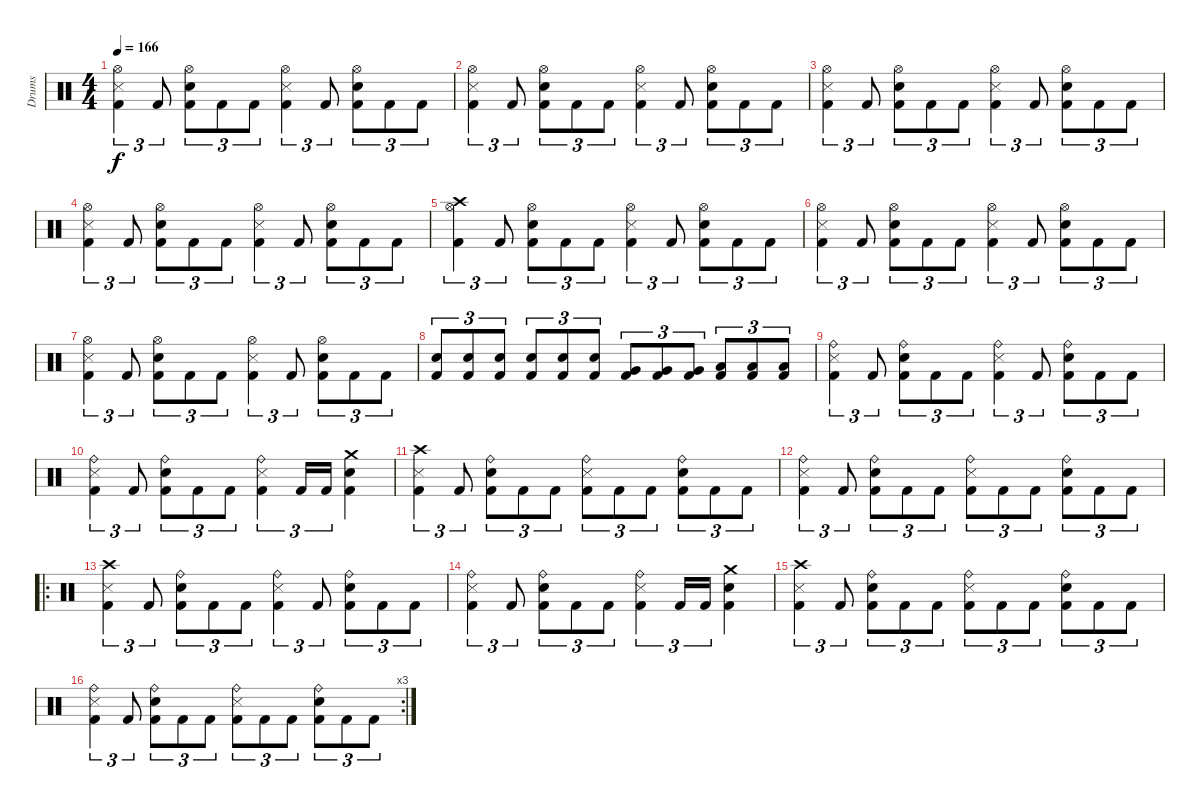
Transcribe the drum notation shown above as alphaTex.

\track ("Drums" "Drums") {instrument percussion}
\staff {score}
\articulation defaults
\ts (4 4)
\tempo 166
\clef neutral
\ks c
("Hi-Hat (open)" "Snare (side stick) 3" "Kick (hit) 2").4{tu (3 2) dy f} "Kick (hit) 2".8{tu (3 2)} ("Hi-Hat (open)" "Electric Snare (hit)" "Kick (hit) 2").8{tu (3 2)} "Kick (hit) 2".8{tu (3 2)} "Kick (hit) 2".8{tu (3 2)} ("Hi-Hat (open)" "Snare (side stick) 3" "Kick (hit) 2").4{tu (3 2)} "Kick (hit) 2".8{tu (3 2)} ("Hi-Hat (open)" "Electric Snare (hit)" "Kick (hit) 2").8{tu (3 2)} "Kick (hit) 2".8{tu (3 2)} "Kick (hit) 2".8{tu (3 2)} |
("Hi-Hat (open)" "Snare (side stick) 3" "Kick (hit) 2").4{tu (3 2)} "Kick (hit) 2".8{tu (3 2)} ("Hi-Hat (open)" "Electric Snare (hit)" "Kick (hit) 2").8{tu (3 2)} "Kick (hit) 2".8{tu (3 2)} "Kick (hit) 2".8{tu (3 2)} ("Hi-Hat (open)" "Snare (side stick) 3" "Kick (hit) 2").4{tu (3 2)} "Kick (hit) 2".8{tu (3 2)} ("Hi-Hat (open)" "Electric Snare (hit)" "Kick (hit) 2").8{tu (3 2)} "Kick (hit) 2".8{tu (3 2)} "Kick (hit) 2".8{tu (3 2)} |
("Hi-Hat (open)" "Snare (side stick) 3" "Kick (hit) 2").4{tu (3 2)} "Kick (hit) 2".8{tu (3 2)} ("Hi-Hat (open)" "Electric Snare (hit)" "Kick (hit) 2").8{tu (3 2)} "Kick (hit) 2".8{tu (3 2)} "Kick (hit) 2".8{tu (3 2)} ("Hi-Hat (open)" "Snare (side stick) 3" "Kick (hit) 2").4{tu (3 2)} "Kick (hit) 2".8{tu (3 2)} ("Hi-Hat (open)" "Electric Snare (hit)" "Kick (hit) 2").8{tu (3 2)} "Kick (hit) 2".8{tu (3 2)} "Kick (hit) 2".8{tu (3 2)} |
("Hi-Hat (open)" "Snare (side stick) 3" "Kick (hit) 2").4{tu (3 2)} "Kick (hit) 2".8{tu (3 2)} ("Hi-Hat (open)" "Electric Snare (hit)" "Kick (hit) 2").8{tu (3 2)} "Kick (hit) 2".8{tu (3 2)} "Kick (hit) 2".8{tu (3 2)} ("Hi-Hat (open)" "Snare (side stick) 3" "Kick (hit) 2").4{tu (3 2)} "Kick (hit) 2".8{tu (3 2)} ("Hi-Hat (open)" "Electric Snare (hit)" "Kick (hit) 2").8{tu (3 2)} "Kick (hit) 2".8{tu (3 2)} "Kick (hit) 2".8{tu (3 2)} |
("Crash high (hit)" "Hi-Hat (open)" "Kick (hit) 2").4{tu (3 2)} "Kick (hit) 2".8{tu (3 2)} ("Hi-Hat (open)" "Electric Snare (hit)" "Kick (hit) 2").8{tu (3 2)} "Kick (hit) 2".8{tu (3 2)} "Kick (hit) 2".8{tu (3 2)} ("Hi-Hat (open)" "Snare (side stick) 3" "Kick (hit) 2").4{tu (3 2)} "Kick (hit) 2".8{tu (3 2)} ("Hi-Hat (open)" "Electric Snare (hit)" "Kick (hit) 2").8{tu (3 2)} "Kick (hit) 2".8{tu (3 2)} "Kick (hit) 2".8{tu (3 2)} |
("Hi-Hat (open)" "Snare (side stick) 3" "Kick (hit) 2").4{tu (3 2)} "Kick (hit) 2".8{tu (3 2)} ("Hi-Hat (open)" "Electric Snare (hit)" "Kick (hit) 2").8{tu (3 2)} "Kick (hit) 2".8{tu (3 2)} "Kick (hit) 2".8{tu (3 2)} ("Hi-Hat (open)" "Snare (side stick) 3" "Kick (hit) 2").4{tu (3 2)} "Kick (hit) 2".8{tu (3 2)} ("Hi-Hat (open)" "Electric Snare (hit)" "Kick (hit) 2").8{tu (3 2)} "Kick (hit) 2".8{tu (3 2)} "Kick (hit) 2".8{tu (3 2)} |
("Hi-Hat (open)" "Snare (side stick) 3" "Kick (hit) 2").4{tu (3 2)} "Kick (hit) 2".8{tu (3 2)} ("Hi-Hat (open)" "Electric Snare (hit)" "Kick (hit) 2").8{tu (3 2)} "Kick (hit) 2".8{tu (3 2)} "Kick (hit) 2".8{tu (3 2)} ("Hi-Hat (open)" "Snare (side stick) 3" "Kick (hit) 2").4{tu (3 2)} "Kick (hit) 2".8{tu (3 2)} ("Hi-Hat (open)" "Electric Snare (hit)" "Kick (hit) 2").8{tu (3 2)} "Kick (hit) 2".8{tu (3 2)} "Kick (hit) 2".8{tu (3 2)} |
("Electric Snare (hit)" "Kick (hit) 2").8{tu (3 2)} ("Electric Snare (hit)" "Kick (hit) 2").8{tu (3 2)} ("Electric Snare (hit)" "Kick (hit) 2").8{tu (3 2)} ("Electric Snare (hit)" "Kick (hit) 2").8{tu (3 2)} ("Electric Snare (hit)" "Kick (hit) 2").8{tu (3 2)} ("Electric Snare (hit)" "Kick (hit) 2").8{tu (3 2)} ("Very Low Tom (hit)" "Kick (hit) 2").8{tu (3 2)} ("Very Low Tom (hit)" "Kick (hit) 2").8{tu (3 2)} ("Very Low Tom (hit)" "Kick (hit) 2").8{tu (3 2)} ("Low Tom (hit)" "Kick (hit) 2").8{tu (3 2)} ("Low Tom (hit)" "Kick (hit) 2").8{tu (3 2)} ("Low Tom (hit)" "Kick (hit) 2").8{tu (3 2)} |
("Ride (bell)" "Snare (side stick) 3" "Kick (hit) 2").4{tu (3 2)} "Kick (hit) 2".8{tu (3 2)} ("Ride (bell)" "Electric Snare (hit)" "Kick (hit) 2").8{tu (3 2)} "Kick (hit) 2".8{tu (3 2)} "Kick (hit) 2".8{tu (3 2)} ("Ride (bell)" "Snare (side stick) 3" "Kick (hit) 2").4{tu (3 2)} "Kick (hit) 2".8{tu (3 2)} ("Ride (bell)" "Electric Snare (hit)" "Kick (hit) 2").8{tu (3 2)} "Kick (hit) 2".8{tu (3 2)} "Kick (hit) 2".8{tu (3 2)} |
("Ride (bell)" "Snare (side stick) 3" "Kick (hit) 2").4{tu (3 2)} "Kick (hit) 2".8{tu (3 2)} ("Ride (bell)" "Electric Snare (hit)" "Kick (hit) 2").8{tu (3 2)} "Kick (hit) 2".8{tu (3 2)} "Kick (hit) 2".8{tu (3 2)} ("Ride (bell)" "Snare (side stick) 3" "Kick (hit) 2").4{tu (3 2)} "Kick (hit) 2".16{tu (3 2)} "Kick (hit) 2".16{tu (3 2)} ("Crash medium (hit)" "Electric Snare (hit)" "Kick (hit) 2").4 |
("Crash high (hit)" "Snare (side stick) 3" "Kick (hit) 2").4{tu (3 2)} "Kick (hit) 2".8{tu (3 2)} ("Ride (bell)" "Electric Snare (hit)" "Kick (hit) 2").8{tu (3 2)} "Kick (hit) 2".8{tu (3 2)} "Kick (hit) 2".8{tu (3 2)} ("Ride (bell)" "Snare (side stick) 3" "Kick (hit) 2").8{tu (3 2)} "Kick (hit) 2".8{tu (3 2)} "Kick (hit) 2".8{tu (3 2)} ("Ride (bell)" "Electric Snare (hit)" "Kick (hit) 2").8{tu (3 2)} "Kick (hit) 2".8{tu (3 2)} "Kick (hit) 2".8{tu (3 2)} |
("Ride (bell)" "Snare (side stick) 3" "Kick (hit) 2").4{tu (3 2)} "Kick (hit) 2".8{tu (3 2)} ("Ride (bell)" "Electric Snare (hit)" "Kick (hit) 2").8{tu (3 2)} "Kick (hit) 2".8{tu (3 2)} "Kick (hit) 2".8{tu (3 2)} ("Ride (bell)" "Snare (side stick) 3" "Kick (hit) 2").8{tu (3 2)} "Kick (hit) 2".8{tu (3 2)} "Kick (hit) 2".8{tu (3 2)} ("Ride (bell)" "Electric Snare (hit)" "Kick (hit) 2").8{tu (3 2)} "Kick (hit) 2".8{tu (3 2)} "Kick (hit) 2".8{tu (3 2)} |
\ro
("Crash high (hit)" "Snare (side stick) 3" "Kick (hit) 2").4{tu (3 2)} "Kick (hit) 2".8{tu (3 2)} ("Ride (bell)" "Electric Snare (hit)" "Kick (hit) 2").8{tu (3 2)} "Kick (hit) 2".8{tu (3 2)} "Kick (hit) 2".8{tu (3 2)} ("Ride (bell)" "Snare (side stick) 3" "Kick (hit) 2").4{tu (3 2)} "Kick (hit) 2".8{tu (3 2)} ("Ride (bell)" "Electric Snare (hit)" "Kick (hit) 2").8{tu (3 2)} "Kick (hit) 2".8{tu (3 2)} "Kick (hit) 2".8{tu (3 2)} |
("Ride (bell)" "Snare (side stick) 3" "Kick (hit) 2").4{tu (3 2)} "Kick (hit) 2".8{tu (3 2)} ("Ride (bell)" "Electric Snare (hit)" "Kick (hit) 2").8{tu (3 2)} "Kick (hit) 2".8{tu (3 2)} "Kick (hit) 2".8{tu (3 2)} ("Ride (bell)" "Snare (side stick) 3" "Kick (hit) 2").4{tu (3 2)} "Kick (hit) 2".16{tu (3 2)} "Kick (hit) 2".16{tu (3 2)} ("Crash medium (hit)" "Electric Snare (hit)" "Kick (hit) 2").4 |
("Crash high (hit)" "Snare (side stick) 3" "Kick (hit) 2").4{tu (3 2)} "Kick (hit) 2".8{tu (3 2)} ("Ride (bell)" "Electric Snare (hit)" "Kick (hit) 2").8{tu (3 2)} "Kick (hit) 2".8{tu (3 2)} "Kick (hit) 2".8{tu (3 2)} ("Ride (bell)" "Snare (side stick) 3" "Kick (hit) 2").8{tu (3 2)} "Kick (hit) 2".8{tu (3 2)} "Kick (hit) 2".8{tu (3 2)} ("Ride (bell)" "Electric Snare (hit)" "Kick (hit) 2").8{tu (3 2)} "Kick (hit) 2".8{tu (3 2)} "Kick (hit) 2".8{tu (3 2)} |
\rc 3
("Ride (bell)" "Snare (side stick) 3" "Kick (hit) 2").4{tu (3 2)} "Kick (hit) 2".8{tu (3 2)} ("Ride (bell)" "Electric Snare (hit)" "Kick (hit) 2").8{tu (3 2)} "Kick (hit) 2".8{tu (3 2)} "Kick (hit) 2".8{tu (3 2)} ("Ride (bell)" "Snare (side stick) 3" "Kick (hit) 2").8{tu (3 2)} "Kick (hit) 2".8{tu (3 2)} "Kick (hit) 2".8{tu (3 2)} ("Ride (bell)" "Electric Snare (hit)" "Kick (hit) 2").8{tu (3 2)} "Kick (hit) 2".8{tu (3 2)} "Kick (hit) 2".8{tu (3 2)}
